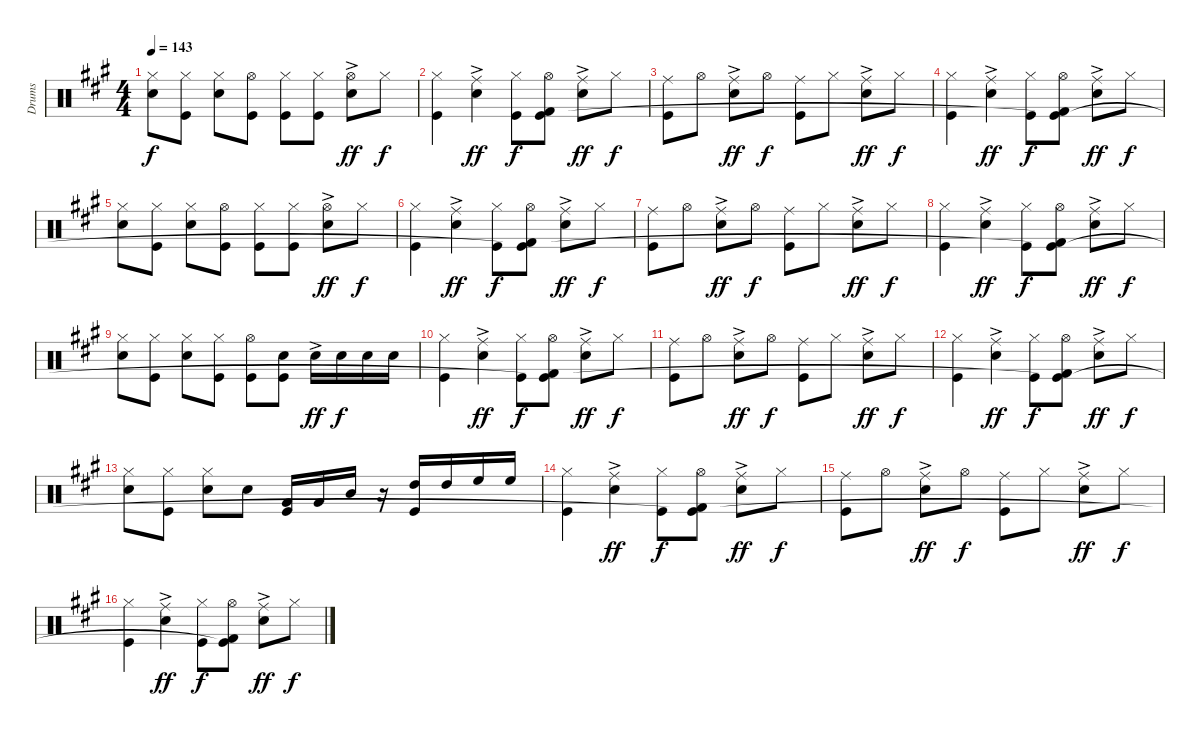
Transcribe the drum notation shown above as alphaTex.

\track ("Drums" "Drums") {instrument percussion}
\staff {score}
\articulation defaults
\ts (4 4)
\tempo 143
\clef neutral
\ks a
("Hi-Hat (closed)" "Snare (hit) 2").8{dy f} ("Hi-Hat (closed)" "Kick (hit)").8 ("Hi-Hat (closed)" "Snare (hit) 2").8 ("Hi-Hat (open)" "Kick (hit)").8 ("Hi-Hat (closed)" "Kick (hit)").8 ("Hi-Hat (closed)" "Kick (hit)").8 ("Hi-Hat (open)" "Snare (hit) 2"{ac}).8{dy ff} "Hi-Hat (closed)".8{dy f} |
("Hi-Hat (closed)" "Kick (hit)").4 ("Ride (middle)" "Snare (hit) 2"{ac}).4{dy ff} ("Hi-Hat (closed)" "Kick (hit)").8{dy f} ("Hi-Hat (open)" "Kick (hit) 2" "Kick (hit)"{t}).8 ("Ride (middle)"{ac} "Snare (hit) 2").8{dy ff} "Hi-Hat (closed)".8{dy f} |
("Ride (middle)" "Kick (hit)").8 "Hi-Hat (open)".8 ("Ride (middle)" "Snare (hit) 2"{ac}).8{dy ff} "Hi-Hat (open)".8{dy f} ("Ride (middle)" "Kick (hit)").8 "Hi-Hat (closed)".8 ("Ride (middle)"{ac} "Snare (hit) 2").8{dy ff} "Hi-Hat (closed)".8{dy f} |
("Hi-Hat (closed)" "Kick (hit)").4 ("Ride (middle)" "Snare (hit) 2"{ac}).4{dy ff} ("Hi-Hat (closed)" "Kick (hit)").8{dy f} ("Hi-Hat (open)" "Kick (hit) 2" "Kick (hit)"{t}).8 ("Ride (middle)"{ac} "Snare (hit) 2").8{dy ff} "Hi-Hat (closed)".8{dy f} |
("Hi-Hat (closed)" "Snare (hit) 2").8 ("Hi-Hat (closed)" "Kick (hit)").8 ("Hi-Hat (closed)" "Snare (hit) 2").8 ("Hi-Hat (open)" "Kick (hit)").8 ("Hi-Hat (closed)" "Kick (hit)").8 ("Hi-Hat (closed)" "Kick (hit)").8 ("Hi-Hat (open)" "Snare (hit) 2"{ac}).8{dy ff} "Hi-Hat (closed)".8{dy f} |
("Hi-Hat (closed)" "Kick (hit)").4 ("Ride (middle)" "Snare (hit) 2"{ac}).4{dy ff} ("Hi-Hat (closed)" "Kick (hit)").8{dy f} ("Hi-Hat (open)" "Kick (hit) 2" "Kick (hit)"{t}).8 ("Ride (middle)"{ac} "Snare (hit) 2").8{dy ff} "Hi-Hat (closed)".8{dy f} |
("Ride (middle)" "Kick (hit)").8 "Hi-Hat (open)".8 ("Ride (middle)" "Snare (hit) 2"{ac}).8{dy ff} "Hi-Hat (open)".8{dy f} ("Ride (middle)" "Kick (hit)").8 "Hi-Hat (closed)".8 ("Ride (middle)"{ac} "Snare (hit) 2").8{dy ff} "Hi-Hat (closed)".8{dy f} |
("Hi-Hat (closed)" "Kick (hit)").4 ("Ride (middle)" "Snare (hit) 2"{ac}).4{dy ff} ("Hi-Hat (closed)" "Kick (hit)").8{dy f} ("Hi-Hat (open)" "Kick (hit) 2" "Kick (hit)"{t}).8 ("Ride (middle)"{ac} "Snare (hit) 2").8{dy ff} "Hi-Hat (closed)".8{dy f} |
("Hi-Hat (closed)" "Snare (hit) 2").8 ("Hi-Hat (closed)" "Kick (hit)").8 ("Hi-Hat (closed)" "Snare (hit) 2").8 ("Hi-Hat (closed)" "Kick (hit)").8 ("Hi-Hat (open)" "Kick (hit)").8 ("Snare (hit) 2" "Kick (hit)").8 "Snare (hit) 2"{ac}.16{dy ff} "Snare (hit) 2".16{dy f} "Snare (hit) 2".16 "Snare (hit) 2".16 |
("Hi-Hat (closed)" "Kick (hit)").4 ("Ride (middle)" "Snare (hit) 2"{ac}).4{dy ff} ("Hi-Hat (closed)" "Kick (hit)").8{dy f} ("Hi-Hat (open)" "Kick (hit) 2" "Kick (hit)"{t}).8 ("Ride (middle)"{ac} "Snare (hit) 2").8{dy ff} "Hi-Hat (closed)".8{dy f} |
("Ride (middle)" "Kick (hit)").8 "Hi-Hat (open)".8 ("Ride (middle)" "Snare (hit) 2"{ac}).8{dy ff} "Hi-Hat (open)".8{dy f} ("Ride (middle)" "Kick (hit)").8 "Hi-Hat (closed)".8 ("Ride (middle)"{ac} "Snare (hit) 2").8{dy ff} "Hi-Hat (closed)".8{dy f} |
("Hi-Hat (closed)" "Kick (hit)").4 ("Ride (middle)" "Snare (hit) 2"{ac}).4{dy ff} ("Hi-Hat (closed)" "Kick (hit)").8{dy f} ("Hi-Hat (open)" "Kick (hit) 2" "Kick (hit)"{t}).8 ("Ride (middle)"{ac} "Snare (hit) 2").8{dy ff} "Hi-Hat (closed)".8{dy f} |
("Hi-Hat (closed)" "Snare (hit) 2").8 ("Hi-Hat (closed)" "Kick (hit)").8 ("Hi-Hat (closed)" "Snare (hit) 2").8 "Snare (hit) 2".8 ("Very Low Tom (hit)" "Kick (hit)").16 "Very Low Tom (hit)".16 "Mid Tom (hit)".16 r.16 ("High Tom (hit)" "Kick (hit)").16 "High Tom (hit)".16 "High Floor Tom (hit)".16 "High Floor Tom (hit)".16 |
("Hi-Hat (closed)" "Kick (hit)").4 ("Ride (middle)" "Snare (hit) 2"{ac}).4{dy ff} ("Hi-Hat (closed)" "Kick (hit)").8{dy f} ("Hi-Hat (open)" "Kick (hit) 2" "Kick (hit)"{t}).8 ("Ride (middle)"{ac} "Snare (hit) 2").8{dy ff} "Hi-Hat (closed)".8{dy f} |
("Ride (middle)" "Kick (hit)").8 "Hi-Hat (open)".8 ("Ride (middle)" "Snare (hit) 2"{ac}).8{dy ff} "Hi-Hat (open)".8{dy f} ("Ride (middle)" "Kick (hit)").8 "Hi-Hat (closed)".8 ("Ride (middle)"{ac} "Snare (hit) 2").8{dy ff} "Hi-Hat (closed)".8{dy f} |
("Hi-Hat (closed)" "Kick (hit)").4 ("Ride (middle)" "Snare (hit) 2"{ac}).4{dy ff} ("Hi-Hat (closed)" "Kick (hit)").8{dy f} ("Hi-Hat (open)" "Kick (hit) 2" "Kick (hit)"{t}).8 ("Ride (middle)"{ac} "Snare (hit) 2").8{dy ff} "Hi-Hat (closed)".8{dy f}
